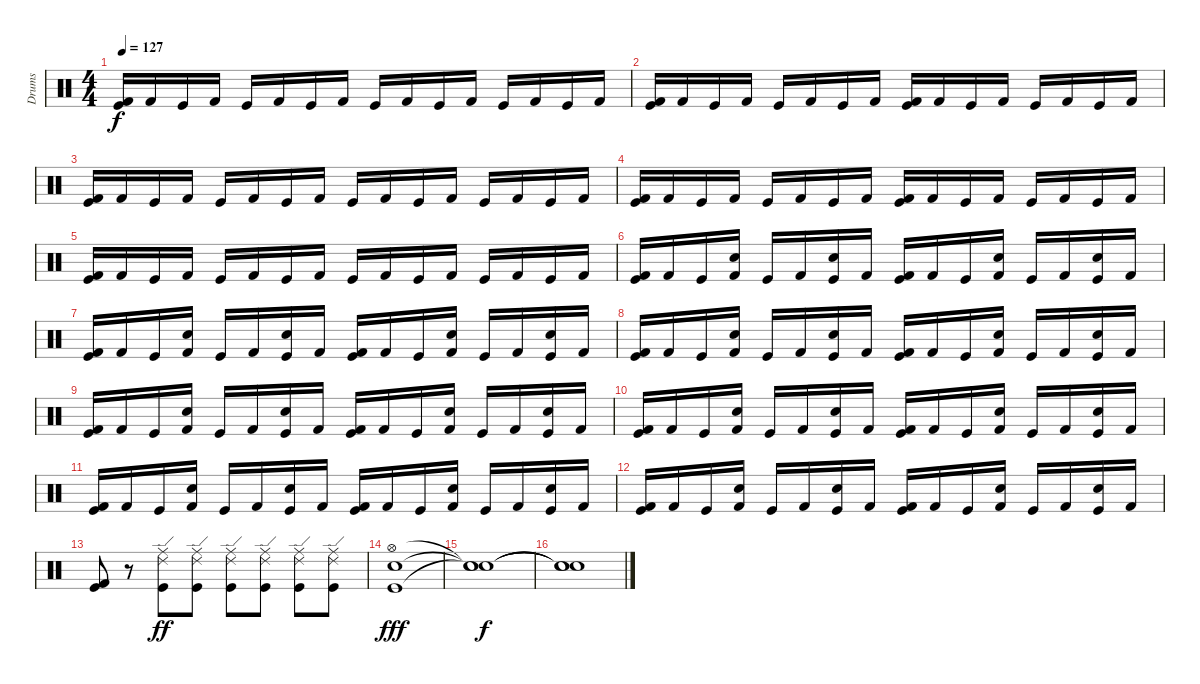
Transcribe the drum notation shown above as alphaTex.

\track ("Drums" "Drums") {instrument percussion}
\staff {score}
\articulation defaults
\ts (4 4)
\tempo 127
\clef neutral
\ks c
("Kick (hit)" "Kick (hit) 2").16{dy f} "Kick (hit) 2".16 "Kick (hit)".16 "Kick (hit) 2".16 "Kick (hit)".16 "Kick (hit) 2".16 "Kick (hit)".16 "Kick (hit) 2".16 "Kick (hit)".16 "Kick (hit) 2".16 "Kick (hit)".16 "Kick (hit) 2".16 "Kick (hit)".16 "Kick (hit) 2".16 "Kick (hit)".16 "Kick (hit) 2".16 |
("Kick (hit)" "Kick (hit) 2").16 "Kick (hit) 2".16 "Kick (hit)".16 "Kick (hit) 2".16 "Kick (hit)".16 "Kick (hit) 2".16 "Kick (hit)".16 "Kick (hit) 2".16 ("Kick (hit)" "Kick (hit) 2").16 "Kick (hit) 2".16 "Kick (hit)".16 "Kick (hit) 2".16 "Kick (hit)".16 "Kick (hit) 2".16 "Kick (hit)".16 "Kick (hit) 2".16 |
("Kick (hit)" "Kick (hit) 2").16 "Kick (hit) 2".16 "Kick (hit)".16 "Kick (hit) 2".16 "Kick (hit)".16 "Kick (hit) 2".16 "Kick (hit)".16 "Kick (hit) 2".16 "Kick (hit)".16 "Kick (hit) 2".16 "Kick (hit)".16 "Kick (hit) 2".16 "Kick (hit)".16 "Kick (hit) 2".16 "Kick (hit)".16 "Kick (hit) 2".16 |
("Kick (hit)" "Kick (hit) 2").16 "Kick (hit) 2".16 "Kick (hit)".16 "Kick (hit) 2".16 "Kick (hit)".16 "Kick (hit) 2".16 "Kick (hit)".16 "Kick (hit) 2".16 ("Kick (hit)" "Kick (hit) 2").16 "Kick (hit) 2".16 "Kick (hit)".16 "Kick (hit) 2".16 "Kick (hit)".16 "Kick (hit) 2".16 "Kick (hit)".16 "Kick (hit) 2".16 |
("Kick (hit)" "Kick (hit) 2").16 "Kick (hit) 2".16 "Kick (hit)".16 "Kick (hit) 2".16 "Kick (hit)".16 "Kick (hit) 2".16 "Kick (hit)".16 "Kick (hit) 2".16 "Kick (hit)".16 "Kick (hit) 2".16 "Kick (hit)".16 "Kick (hit) 2".16 "Kick (hit)".16 "Kick (hit) 2".16 "Kick (hit)".16 "Kick (hit) 2".16 |
("Kick (hit)" "Kick (hit) 2").16 "Kick (hit) 2".16 "Kick (hit)".16 ("Snare (hit) 2" "Kick (hit) 2").16 "Kick (hit)".16 "Kick (hit) 2".16 ("Snare (hit) 2" "Kick (hit)").16 "Kick (hit) 2".16 ("Kick (hit)" "Kick (hit) 2").16 "Kick (hit) 2".16 "Kick (hit)".16 ("Snare (hit) 2" "Kick (hit) 2").16 "Kick (hit)".16 "Kick (hit) 2".16 ("Snare (hit) 2" "Kick (hit)").16 "Kick (hit) 2".16 |
("Kick (hit)" "Kick (hit) 2").16 "Kick (hit) 2".16 "Kick (hit)".16 ("Snare (hit) 2" "Kick (hit) 2").16 "Kick (hit)".16 "Kick (hit) 2".16 ("Snare (hit) 2" "Kick (hit)").16 "Kick (hit) 2".16 ("Kick (hit)" "Kick (hit) 2").16 "Kick (hit) 2".16 "Kick (hit)".16 ("Snare (hit) 2" "Kick (hit) 2").16 "Kick (hit)".16 "Kick (hit) 2".16 ("Snare (hit) 2" "Kick (hit)").16 "Kick (hit) 2".16 |
("Kick (hit)" "Kick (hit) 2").16 "Kick (hit) 2".16 "Kick (hit)".16 ("Snare (hit) 2" "Kick (hit) 2").16 "Kick (hit)".16 "Kick (hit) 2".16 ("Snare (hit) 2" "Kick (hit)").16 "Kick (hit) 2".16 ("Kick (hit)" "Kick (hit) 2").16 "Kick (hit) 2".16 "Kick (hit)".16 ("Snare (hit) 2" "Kick (hit) 2").16 "Kick (hit)".16 "Kick (hit) 2".16 ("Snare (hit) 2" "Kick (hit)").16 "Kick (hit) 2".16 |
("Kick (hit)" "Kick (hit) 2").16 "Kick (hit) 2".16 "Kick (hit)".16 ("Snare (hit) 2" "Kick (hit) 2").16 "Kick (hit)".16 "Kick (hit) 2".16 ("Snare (hit) 2" "Kick (hit)").16 "Kick (hit) 2".16 ("Kick (hit)" "Kick (hit) 2").16 "Kick (hit) 2".16 "Kick (hit)".16 ("Snare (hit) 2" "Kick (hit) 2").16 "Kick (hit)".16 "Kick (hit) 2".16 ("Snare (hit) 2" "Kick (hit)").16 "Kick (hit) 2".16 |
("Kick (hit)" "Kick (hit) 2").16 "Kick (hit) 2".16 "Kick (hit)".16 ("Snare (hit) 2" "Kick (hit) 2").16 "Kick (hit)".16 "Kick (hit) 2".16 ("Snare (hit) 2" "Kick (hit)").16 "Kick (hit) 2".16 ("Kick (hit)" "Kick (hit) 2").16 "Kick (hit) 2".16 "Kick (hit)".16 ("Snare (hit) 2" "Kick (hit) 2").16 "Kick (hit)".16 "Kick (hit) 2".16 ("Snare (hit) 2" "Kick (hit)").16 "Kick (hit) 2".16 |
("Kick (hit)" "Kick (hit) 2").16 "Kick (hit) 2".16 "Kick (hit)".16 ("Snare (hit) 2" "Kick (hit) 2").16 "Kick (hit)".16 "Kick (hit) 2".16 ("Snare (hit) 2" "Kick (hit)").16 "Kick (hit) 2".16 ("Kick (hit)" "Kick (hit) 2").16 "Kick (hit) 2".16 "Kick (hit)".16 ("Snare (hit) 2" "Kick (hit) 2").16 "Kick (hit)".16 "Kick (hit) 2".16 ("Snare (hit) 2" "Kick (hit)").16 "Kick (hit) 2".16 |
("Kick (hit)" "Kick (hit) 2").16 "Kick (hit) 2".16 "Kick (hit)".16 ("Snare (hit) 2" "Kick (hit) 2").16 "Kick (hit)".16 "Kick (hit) 2".16 ("Snare (hit) 2" "Kick (hit)").16 "Kick (hit) 2".16 ("Kick (hit)" "Kick (hit) 2").16 "Kick (hit) 2".16 "Kick (hit)".16 ("Snare (hit) 2" "Kick (hit) 2").16 "Kick (hit)".16 "Kick (hit) 2".16 ("Snare (hit) 2" "Kick (hit)").16 "Kick (hit) 2".16 |
("Kick (hit)" "Kick (hit) 2").8 r.8 ("Ride (edge) 2" "Ride (middle)" "Kick (hit)").8{dy ff} ("Ride (edge) 2" "Ride (middle)" "Kick (hit)").8 ("Ride (edge) 2" "Ride (middle)" "Kick (hit)").8 ("Ride (edge) 2" "Ride (middle)" "Kick (hit)").8 ("Ride (edge) 2" "Ride (middle)" "Kick (hit)").8 ("Ride (edge) 2" "Ride (middle)" "Kick (hit)").8 |
("Hi-Hat (open)" "Kick (hit)" "Snare (hit) 2").1{dy fff} |
("Snare (hit)"{t} "Snare (hit)"{t} "Snare (hit)"{t}).1{dy f} |
("Snare (hit)"{t} "Snare (hit)"{t} "Snare (hit)"{t}).1
